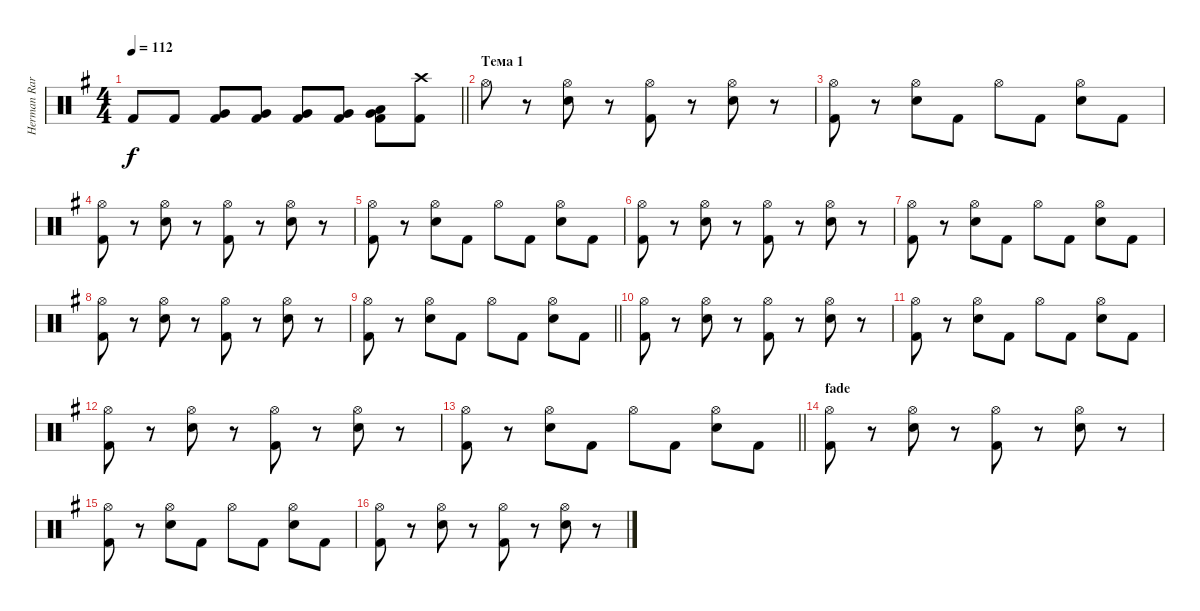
\track ("Herman Rarebell" "Herman Rar") {instrument percussion}
\staff {score}
\articulation defaults
\ts (4 4)
\tempo 112
\clef neutral
\barLineRight lightlight
\ks eminor "Kick (hit) 2".8{dy f} "Kick (hit) 2".8
("Very Low Tom (hit)" "Kick (hit) 2").8 ("Very Low Tom (hit)" "Kick (hit) 2").8 ("Very Low Tom (hit)" "Kick (hit) 2").8 ("Very Low Tom (hit)" "Kick (hit) 2").8 ("Very Low Tom (hit)" "Low Floor Tom (hit)" "Kick (hit) 2").8 ("Crash high (hit)" "Kick (hit) 2").8 |
\section ("" "Тема 1")
"Hi-Hat (open)".8 r.8 ("Hi-Hat (open)" "Electric Snare (hit)").8 r.8 ("Hi-Hat (open)" "Kick (hit) 2").8 r.8 ("Hi-Hat (open)" "Electric Snare (hit)").8 r.8 |
("Hi-Hat (open)" "Kick (hit) 2").8 r.8 ("Hi-Hat (open)" "Electric Snare (hit)").8 "Kick (hit) 2".8 "Hi-Hat (open)".8 "Kick (hit) 2".8 ("Hi-Hat (open)" "Electric Snare (hit)").8 "Kick (hit) 2".8 |
("Hi-Hat (open)" "Kick (hit) 2").8 r.8 ("Hi-Hat (open)" "Electric Snare (hit)").8 r.8 ("Hi-Hat (open)" "Kick (hit) 2").8 r.8 ("Hi-Hat (open)" "Electric Snare (hit)").8 r.8 |
("Hi-Hat (open)" "Kick (hit) 2").8 r.8 ("Hi-Hat (open)" "Electric Snare (hit)").8 "Kick (hit) 2".8 "Hi-Hat (open)".8 "Kick (hit) 2".8 ("Hi-Hat (open)" "Electric Snare (hit)").8 "Kick (hit) 2".8 |
("Hi-Hat (open)" "Kick (hit) 2").8 r.8 ("Hi-Hat (open)" "Electric Snare (hit)").8 r.8 ("Hi-Hat (open)" "Kick (hit) 2").8 r.8 ("Hi-Hat (open)" "Electric Snare (hit)").8 r.8 |
("Hi-Hat (open)" "Kick (hit) 2").8 r.8 ("Hi-Hat (open)" "Electric Snare (hit)").8 "Kick (hit) 2".8 "Hi-Hat (open)".8 "Kick (hit) 2".8 ("Hi-Hat (open)" "Electric Snare (hit)").8 "Kick (hit) 2".8 |
("Hi-Hat (open)" "Kick (hit) 2").8 r.8 ("Hi-Hat (open)" "Electric Snare (hit)").8 r.8 ("Hi-Hat (open)" "Kick (hit) 2").8 r.8 ("Hi-Hat (open)" "Electric Snare (hit)").8 r.8 |
\barLineRight lightlight
("Hi-Hat (open)" "Kick (hit) 2").8 r.8 ("Hi-Hat (open)" "Electric Snare (hit)").8 "Kick (hit) 2".8 "Hi-Hat (open)".8 "Kick (hit) 2".8 ("Hi-Hat (open)" "Electric Snare (hit)").8 "Kick (hit) 2".8 |
("Hi-Hat (open)" "Kick (hit) 2").8 r.8 ("Hi-Hat (open)" "Electric Snare (hit)").8 r.8 ("Hi-Hat (open)" "Kick (hit) 2").8 r.8 ("Hi-Hat (open)" "Electric Snare (hit)").8 r.8 |
("Hi-Hat (open)" "Kick (hit) 2").8 r.8 ("Hi-Hat (open)" "Electric Snare (hit)").8 "Kick (hit) 2".8 "Hi-Hat (open)".8 "Kick (hit) 2".8 ("Hi-Hat (open)" "Electric Snare (hit)").8 "Kick (hit) 2".8 |
("Hi-Hat (open)" "Kick (hit) 2").8 r.8 ("Hi-Hat (open)" "Electric Snare (hit)").8 r.8 ("Hi-Hat (open)" "Kick (hit) 2").8 r.8 ("Hi-Hat (open)" "Electric Snare (hit)").8 r.8 |
\barLineRight lightlight
("Hi-Hat (open)" "Kick (hit) 2").8 r.8 ("Hi-Hat (open)" "Electric Snare (hit)").8 "Kick (hit) 2".8 "Hi-Hat (open)".8 "Kick (hit) 2".8 ("Hi-Hat (open)" "Electric Snare (hit)").8 "Kick (hit) 2".8 |
\section ("" "fade")
("Hi-Hat (open)" "Kick (hit) 2").8 r.8 ("Hi-Hat (open)" "Electric Snare (hit)").8 r.8 ("Hi-Hat (open)" "Kick (hit) 2").8 r.8 ("Hi-Hat (open)" "Electric Snare (hit)").8 r.8 |
("Hi-Hat (open)" "Kick (hit) 2").8 r.8 ("Hi-Hat (open)" "Electric Snare (hit)").8 "Kick (hit) 2".8 "Hi-Hat (open)".8 "Kick (hit) 2".8 ("Hi-Hat (open)" "Electric Snare (hit)").8 "Kick (hit) 2".8 |
("Hi-Hat (open)" "Kick (hit) 2").8 r.8 ("Hi-Hat (open)" "Electric Snare (hit)").8 r.8 ("Hi-Hat (open)" "Kick (hit) 2").8 r.8 ("Hi-Hat (open)" "Electric Snare (hit)").8 r.8
